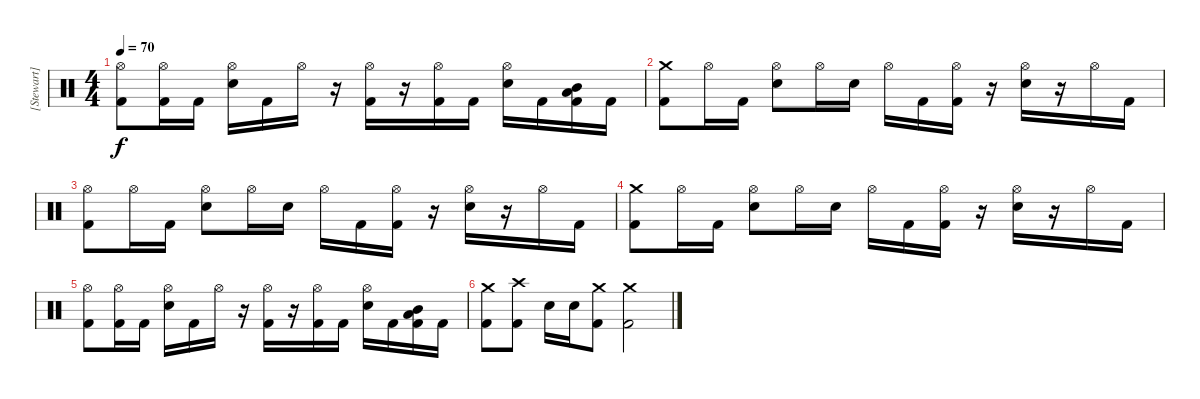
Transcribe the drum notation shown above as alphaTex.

\track ("[Stewart]" "[Stewart]") {instrument percussion}
\staff {score}
\articulation defaults
\ts (4 4)
\tempo 70
\clef neutral
\ks c
("Kick (hit) 2" "Hi-Hat (open)").8{dy f} ("Kick (hit) 2" "Hi-Hat (open)").16 "Kick (hit) 2".16 ("Electric Snare (hit)" "Hi-Hat (open)").16 "Kick (hit) 2".16 "Hi-Hat (open)".16 r.16 ("Kick (hit) 2" "Hi-Hat (open)").16 r.16 ("Kick (hit) 2" "Hi-Hat (open)").16 "Kick (hit) 2".16 ("Electric Snare (hit)" "Hi-Hat (open)").16 "Kick (hit) 2".16 ("Mid Tom (hit)" "Low Tom (hit)" "Kick (hit) 2").16 "Kick (hit) 2".16 |
("Kick (hit) 2" "Crash medium (hit)").8 "Hi-Hat (open)".16 "Kick (hit) 2".16 ("Electric Snare (hit)" "Hi-Hat (open)").8 "Hi-Hat (open)".16 "Electric Snare (hit)".16 "Hi-Hat (open)".16 "Kick (hit) 2".16 ("Kick (hit) 2" "Hi-Hat (open)").16 r.16 ("Electric Snare (hit)" "Hi-Hat (open)").16 r.16 "Hi-Hat (open)".16 "Kick (hit) 2".16 |
("Kick (hit) 2" "Hi-Hat (open)").8 "Hi-Hat (open)".16 "Kick (hit) 2".16 ("Electric Snare (hit)" "Hi-Hat (open)").8 "Hi-Hat (open)".16 "Electric Snare (hit)".16 "Hi-Hat (open)".16 "Kick (hit) 2".16 ("Kick (hit) 2" "Hi-Hat (open)").16 r.16 ("Electric Snare (hit)" "Hi-Hat (open)").16 r.16 "Hi-Hat (open)".16 "Kick (hit) 2".16 |
("Kick (hit) 2" "Crash medium (hit)").8 "Hi-Hat (open)".16 "Kick (hit) 2".16 ("Electric Snare (hit)" "Hi-Hat (open)").8 "Hi-Hat (open)".16 "Electric Snare (hit)".16 "Hi-Hat (open)".16 "Kick (hit) 2".16 ("Kick (hit) 2" "Hi-Hat (open)").16 r.16 ("Electric Snare (hit)" "Hi-Hat (open)").16 r.16 "Hi-Hat (open)".16 "Kick (hit) 2".16 |
("Kick (hit) 2" "Hi-Hat (open)").8 ("Kick (hit) 2" "Hi-Hat (open)").16 "Kick (hit) 2".16 ("Electric Snare (hit)" "Hi-Hat (open)").16 "Kick (hit) 2".16 "Hi-Hat (open)".16 r.16 ("Kick (hit) 2" "Hi-Hat (open)").16 r.16 ("Kick (hit) 2" "Hi-Hat (open)").16 "Kick (hit) 2".16 ("Electric Snare (hit)" "Hi-Hat (open)").16 "Kick (hit) 2".16 ("Mid Tom (hit)" "Low Tom (hit)" "Kick (hit) 2").16 "Kick (hit) 2".16 |
("Kick (hit) 2" "Crash medium (hit)").8 ("Kick (hit) 2" "Crash high (hit)").8 "Electric Snare (hit)".16 "Electric Snare (hit)".16 ("Kick (hit) 2" "Crash medium (hit)").8 ("Kick (hit) 2" "Crash medium (hit)").2
